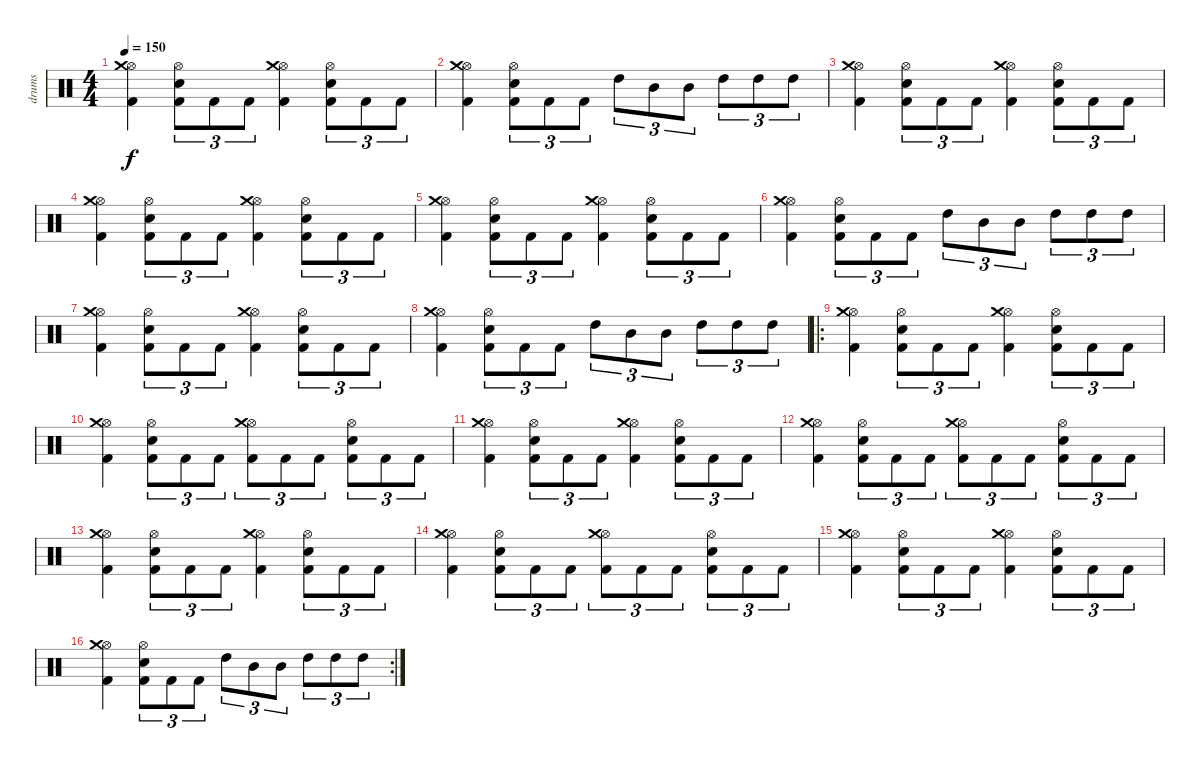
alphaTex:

\track ("drums" "drums") {instrument percussion}
\staff {score}
\articulation defaults
\ts (4 4)
\tempo 150
\clef neutral
\ks c
("Hi-Hat (open)" "Crash medium (hit)" "Kick (hit) 2").4{dy f} ("Snare (hit) 2" "Hi-Hat (open)" "Kick (hit) 2").8{tu (3 2)} "Kick (hit) 2".8{tu (3 2)} "Kick (hit) 2".8{tu (3 2)} ("Hi-Hat (open)" "Crash medium (hit)" "Kick (hit) 2").4 ("Snare (hit) 2" "Hi-Hat (open)" "Kick (hit) 2").8{tu (3 2)} "Kick (hit) 2".8{tu (3 2)} "Kick (hit) 2".8{tu (3 2)} |
("Hi-Hat (open)" "Crash medium (hit)" "Kick (hit) 2").4 ("Snare (hit) 2" "Hi-Hat (open)" "Kick (hit) 2").8{tu (3 2)} "Kick (hit) 2".8{tu (3 2)} "Kick (hit) 2".8{tu (3 2)} "High Tom (hit)".8{tu (3 2)} "Mid Tom (hit)".8{tu (3 2)} "Mid Tom (hit)".8{tu (3 2)} "High Tom (hit)".8{tu (3 2)} "High Tom (hit)".8{tu (3 2)} "High Tom (hit)".8{tu (3 2)} |
("Hi-Hat (open)" "Crash medium (hit)" "Kick (hit) 2").4 ("Snare (hit) 2" "Hi-Hat (open)" "Kick (hit) 2").8{tu (3 2)} "Kick (hit) 2".8{tu (3 2)} "Kick (hit) 2".8{tu (3 2)} ("Hi-Hat (open)" "Crash medium (hit)" "Kick (hit) 2").4 ("Snare (hit) 2" "Hi-Hat (open)" "Kick (hit) 2").8{tu (3 2)} "Kick (hit) 2".8{tu (3 2)} "Kick (hit) 2".8{tu (3 2)} |
("Hi-Hat (open)" "Crash medium (hit)" "Kick (hit) 2").4 ("Snare (hit) 2" "Hi-Hat (open)" "Kick (hit) 2").8{tu (3 2)} "Kick (hit) 2".8{tu (3 2)} "Kick (hit) 2".8{tu (3 2)} ("Hi-Hat (open)" "Crash medium (hit)" "Kick (hit) 2").4 ("Snare (hit) 2" "Hi-Hat (open)" "Kick (hit) 2").8{tu (3 2)} "Kick (hit) 2".8{tu (3 2)} "Kick (hit) 2".8{tu (3 2)} |
("Hi-Hat (open)" "Crash medium (hit)" "Kick (hit) 2").4 ("Snare (hit) 2" "Hi-Hat (open)" "Kick (hit) 2").8{tu (3 2)} "Kick (hit) 2".8{tu (3 2)} "Kick (hit) 2".8{tu (3 2)} ("Hi-Hat (open)" "Crash medium (hit)" "Kick (hit) 2").4 ("Snare (hit) 2" "Hi-Hat (open)" "Kick (hit) 2").8{tu (3 2)} "Kick (hit) 2".8{tu (3 2)} "Kick (hit) 2".8{tu (3 2)} |
("Hi-Hat (open)" "Crash medium (hit)" "Kick (hit) 2").4 ("Snare (hit) 2" "Hi-Hat (open)" "Kick (hit) 2").8{tu (3 2)} "Kick (hit) 2".8{tu (3 2)} "Kick (hit) 2".8{tu (3 2)} "High Tom (hit)".8{tu (3 2)} "Mid Tom (hit)".8{tu (3 2)} "Mid Tom (hit)".8{tu (3 2)} "High Tom (hit)".8{tu (3 2)} "High Tom (hit)".8{tu (3 2)} "High Tom (hit)".8{tu (3 2)} |
("Hi-Hat (open)" "Crash medium (hit)" "Kick (hit) 2").4 ("Snare (hit) 2" "Hi-Hat (open)" "Kick (hit) 2").8{tu (3 2)} "Kick (hit) 2".8{tu (3 2)} "Kick (hit) 2".8{tu (3 2)} ("Hi-Hat (open)" "Crash medium (hit)" "Kick (hit) 2").4 ("Snare (hit) 2" "Hi-Hat (open)" "Kick (hit) 2").8{tu (3 2)} "Kick (hit) 2".8{tu (3 2)} "Kick (hit) 2".8{tu (3 2)} |
("Hi-Hat (open)" "Crash medium (hit)" "Kick (hit) 2").4 ("Snare (hit) 2" "Hi-Hat (open)" "Kick (hit) 2").8{tu (3 2)} "Kick (hit) 2".8{tu (3 2)} "Kick (hit) 2".8{tu (3 2)} "High Tom (hit)".8{tu (3 2)} "Mid Tom (hit)".8{tu (3 2)} "Mid Tom (hit)".8{tu (3 2)} "High Tom (hit)".8{tu (3 2)} "High Tom (hit)".8{tu (3 2)} "High Tom (hit)".8{tu (3 2)} |
\ro
("Hi-Hat (open)" "Crash medium (hit)" "Kick (hit) 2").4 ("Snare (hit) 2" "Hi-Hat (open)" "Kick (hit) 2").8{tu (3 2)} "Kick (hit) 2".8{tu (3 2)} "Kick (hit) 2".8{tu (3 2)} ("Hi-Hat (open)" "Crash medium (hit)" "Kick (hit) 2").4 ("Snare (hit) 2" "Hi-Hat (open)" "Kick (hit) 2").8{tu (3 2)} "Kick (hit) 2".8{tu (3 2)} "Kick (hit) 2".8{tu (3 2)} |
("Hi-Hat (open)" "Crash medium (hit)" "Kick (hit) 2").4 ("Snare (hit) 2" "Hi-Hat (open)" "Kick (hit) 2").8{tu (3 2)} "Kick (hit) 2".8{tu (3 2)} "Kick (hit) 2".8{tu (3 2)} ("Hi-Hat (open)" "Crash medium (hit)" "Kick (hit) 2").8{tu (3 2)} "Kick (hit) 2".8{tu (3 2)} "Kick (hit) 2".8{tu (3 2)} ("Snare (hit) 2" "Hi-Hat (open)" "Kick (hit) 2").8{tu (3 2)} "Kick (hit) 2".8{tu (3 2)} "Kick (hit) 2".8{tu (3 2)} |
("Hi-Hat (open)" "Crash medium (hit)" "Kick (hit) 2").4 ("Snare (hit) 2" "Hi-Hat (open)" "Kick (hit) 2").8{tu (3 2)} "Kick (hit) 2".8{tu (3 2)} "Kick (hit) 2".8{tu (3 2)} ("Hi-Hat (open)" "Crash medium (hit)" "Kick (hit) 2").4 ("Snare (hit) 2" "Hi-Hat (open)" "Kick (hit) 2").8{tu (3 2)} "Kick (hit) 2".8{tu (3 2)} "Kick (hit) 2".8{tu (3 2)} |
("Hi-Hat (open)" "Crash medium (hit)" "Kick (hit) 2").4 ("Snare (hit) 2" "Hi-Hat (open)" "Kick (hit) 2").8{tu (3 2)} "Kick (hit) 2".8{tu (3 2)} "Kick (hit) 2".8{tu (3 2)} ("Hi-Hat (open)" "Crash medium (hit)" "Kick (hit) 2").8{tu (3 2)} "Kick (hit) 2".8{tu (3 2)} "Kick (hit) 2".8{tu (3 2)} ("Snare (hit) 2" "Hi-Hat (open)" "Kick (hit) 2").8{tu (3 2)} "Kick (hit) 2".8{tu (3 2)} "Kick (hit) 2".8{tu (3 2)} |
("Hi-Hat (open)" "Crash medium (hit)" "Kick (hit) 2").4 ("Snare (hit) 2" "Hi-Hat (open)" "Kick (hit) 2").8{tu (3 2)} "Kick (hit) 2".8{tu (3 2)} "Kick (hit) 2".8{tu (3 2)} ("Hi-Hat (open)" "Crash medium (hit)" "Kick (hit) 2").4 ("Snare (hit) 2" "Hi-Hat (open)" "Kick (hit) 2").8{tu (3 2)} "Kick (hit) 2".8{tu (3 2)} "Kick (hit) 2".8{tu (3 2)} |
("Hi-Hat (open)" "Crash medium (hit)" "Kick (hit) 2").4 ("Snare (hit) 2" "Hi-Hat (open)" "Kick (hit) 2").8{tu (3 2)} "Kick (hit) 2".8{tu (3 2)} "Kick (hit) 2".8{tu (3 2)} ("Hi-Hat (open)" "Crash medium (hit)" "Kick (hit) 2").8{tu (3 2)} "Kick (hit) 2".8{tu (3 2)} "Kick (hit) 2".8{tu (3 2)} ("Snare (hit) 2" "Hi-Hat (open)" "Kick (hit) 2").8{tu (3 2)} "Kick (hit) 2".8{tu (3 2)} "Kick (hit) 2".8{tu (3 2)} |
("Hi-Hat (open)" "Crash medium (hit)" "Kick (hit) 2").4 ("Snare (hit) 2" "Hi-Hat (open)" "Kick (hit) 2").8{tu (3 2)} "Kick (hit) 2".8{tu (3 2)} "Kick (hit) 2".8{tu (3 2)} ("Hi-Hat (open)" "Crash medium (hit)" "Kick (hit) 2").4 ("Snare (hit) 2" "Hi-Hat (open)" "Kick (hit) 2").8{tu (3 2)} "Kick (hit) 2".8{tu (3 2)} "Kick (hit) 2".8{tu (3 2)} |
\rc 2
("Hi-Hat (open)" "Crash medium (hit)" "Kick (hit) 2").4 ("Snare (hit) 2" "Hi-Hat (open)" "Kick (hit) 2").8{tu (3 2)} "Kick (hit) 2".8{tu (3 2)} "Kick (hit) 2".8{tu (3 2)} "High Tom (hit)".8{tu (3 2)} "Mid Tom (hit)".8{tu (3 2)} "Mid Tom (hit)".8{tu (3 2)} "High Tom (hit)".8{tu (3 2)} "High Tom (hit)".8{tu (3 2)} "High Tom (hit)".8{tu (3 2)}
